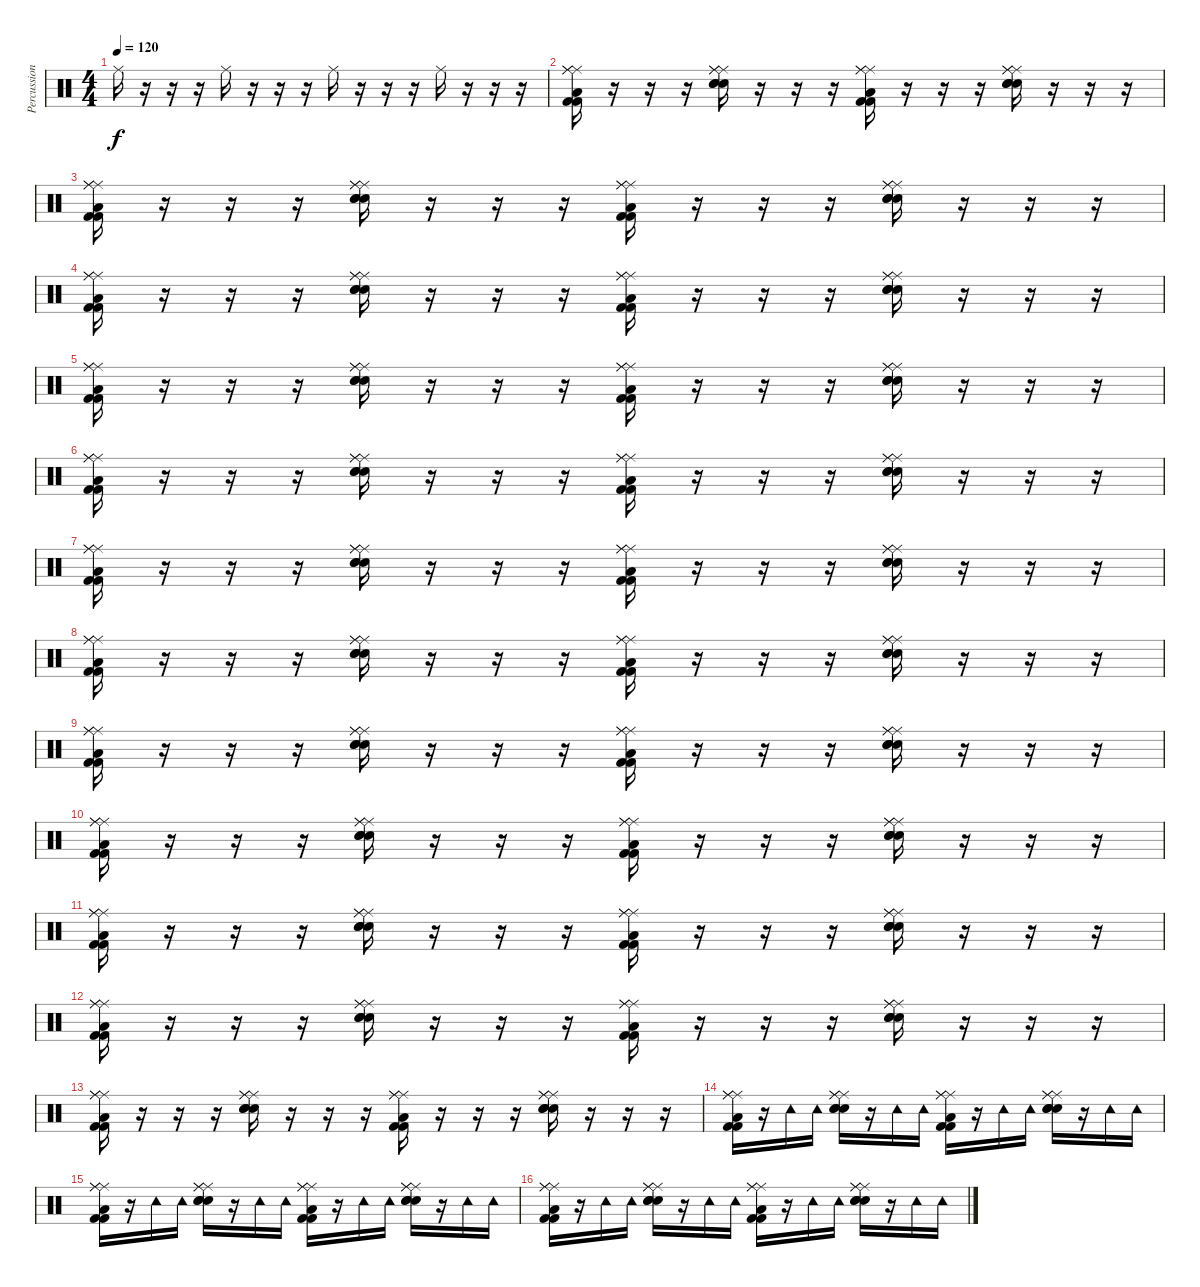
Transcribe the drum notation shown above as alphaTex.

\track ("Percussion" "Percussion") {instrument percussion}
\staff {score}
\articulation defaults
\ts (4 4)
\tempo 120
\clef neutral
\ks c "Ride (middle)".16{dy f}
r.16 r.16 r.16 "Ride (middle)".16 r.16 r.16 r.16 "Ride (middle)".16 r.16 r.16 r.16 "Ride (middle)".16 r.16 r.16 r.16 |
("Ride (middle)" "Ride (middle)" "Ride (middle)" "Low Floor Tom (hit)" "Kick (hit) 2" "Kick (hit) 2").16 r.16 r.16 r.16 ("Ride (middle)" "Ride (middle)" "Ride (middle)" "Snare (hit) 2" "Snare (hit) 2" "Snare (hit) 2").16 r.16 r.16 r.16 ("Ride (middle)" "Ride (middle)" "Ride (middle)" "Low Floor Tom (hit)" "Kick (hit) 2" "Kick (hit) 2").16 r.16 r.16 r.16 ("Ride (middle)" "Ride (middle)" "Ride (middle)" "Snare (hit) 2" "Snare (hit) 2" "Snare (hit) 2").16 r.16 r.16 r.16 |
("Ride (middle)" "Ride (middle)" "Ride (middle)" "Low Floor Tom (hit)" "Kick (hit) 2" "Kick (hit) 2").16 r.16 r.16 r.16 ("Ride (middle)" "Ride (middle)" "Ride (middle)" "Snare (hit) 2" "Snare (hit) 2" "Snare (hit) 2").16 r.16 r.16 r.16 ("Ride (middle)" "Ride (middle)" "Ride (middle)" "Low Floor Tom (hit)" "Kick (hit) 2" "Kick (hit) 2").16 r.16 r.16 r.16 ("Ride (middle)" "Ride (middle)" "Ride (middle)" "Snare (hit) 2" "Snare (hit) 2" "Snare (hit) 2").16 r.16 r.16 r.16 |
("Ride (middle)" "Ride (middle)" "Ride (middle)" "Low Floor Tom (hit)" "Kick (hit) 2" "Kick (hit) 2").16 r.16 r.16 r.16 ("Ride (middle)" "Ride (middle)" "Ride (middle)" "Snare (hit) 2" "Snare (hit) 2" "Snare (hit) 2").16 r.16 r.16 r.16 ("Ride (middle)" "Ride (middle)" "Ride (middle)" "Low Floor Tom (hit)" "Kick (hit) 2" "Kick (hit) 2").16 r.16 r.16 r.16 ("Ride (middle)" "Ride (middle)" "Ride (middle)" "Snare (hit) 2" "Snare (hit) 2" "Snare (hit) 2").16 r.16 r.16 r.16 |
("Ride (middle)" "Ride (middle)" "Ride (middle)" "Low Floor Tom (hit)" "Kick (hit) 2" "Kick (hit) 2").16 r.16 r.16 r.16 ("Ride (middle)" "Ride (middle)" "Ride (middle)" "Snare (hit) 2" "Snare (hit) 2" "Snare (hit) 2").16 r.16 r.16 r.16 ("Ride (middle)" "Ride (middle)" "Ride (middle)" "Low Floor Tom (hit)" "Kick (hit) 2" "Kick (hit) 2").16 r.16 r.16 r.16 ("Ride (middle)" "Ride (middle)" "Ride (middle)" "Snare (hit) 2" "Snare (hit) 2" "Snare (hit) 2").16 r.16 r.16 r.16 |
("Ride (middle)" "Ride (middle)" "Ride (middle)" "Low Floor Tom (hit)" "Kick (hit) 2" "Kick (hit) 2").16 r.16 r.16 r.16 ("Ride (middle)" "Ride (middle)" "Ride (middle)" "Snare (hit) 2" "Snare (hit) 2" "Snare (hit) 2").16 r.16 r.16 r.16 ("Ride (middle)" "Ride (middle)" "Ride (middle)" "Low Floor Tom (hit)" "Kick (hit) 2" "Kick (hit) 2").16 r.16 r.16 r.16 ("Ride (middle)" "Ride (middle)" "Ride (middle)" "Snare (hit) 2" "Snare (hit) 2" "Snare (hit) 2").16 r.16 r.16 r.16 |
("Ride (middle)" "Ride (middle)" "Ride (middle)" "Low Floor Tom (hit)" "Kick (hit) 2" "Kick (hit) 2").16 r.16 r.16 r.16 ("Ride (middle)" "Ride (middle)" "Ride (middle)" "Snare (hit) 2" "Snare (hit) 2" "Snare (hit) 2").16 r.16 r.16 r.16 ("Ride (middle)" "Ride (middle)" "Ride (middle)" "Low Floor Tom (hit)" "Kick (hit) 2" "Kick (hit) 2").16 r.16 r.16 r.16 ("Ride (middle)" "Ride (middle)" "Ride (middle)" "Snare (hit) 2" "Snare (hit) 2" "Snare (hit) 2").16 r.16 r.16 r.16 |
("Ride (middle)" "Ride (middle)" "Ride (middle)" "Low Floor Tom (hit)" "Kick (hit) 2" "Kick (hit) 2").16 r.16 r.16 r.16 ("Ride (middle)" "Ride (middle)" "Ride (middle)" "Snare (hit) 2" "Snare (hit) 2" "Snare (hit) 2").16 r.16 r.16 r.16 ("Ride (middle)" "Ride (middle)" "Ride (middle)" "Low Floor Tom (hit)" "Kick (hit) 2" "Kick (hit) 2").16 r.16 r.16 r.16 ("Ride (middle)" "Ride (middle)" "Ride (middle)" "Snare (hit) 2" "Snare (hit) 2" "Snare (hit) 2").16 r.16 r.16 r.16 |
("Ride (middle)" "Ride (middle)" "Ride (middle)" "Low Floor Tom (hit)" "Kick (hit) 2" "Kick (hit) 2").16 r.16 r.16 r.16 ("Ride (middle)" "Ride (middle)" "Ride (middle)" "Snare (hit) 2" "Snare (hit) 2" "Snare (hit) 2").16 r.16 r.16 r.16 ("Ride (middle)" "Ride (middle)" "Ride (middle)" "Low Floor Tom (hit)" "Kick (hit) 2" "Kick (hit) 2").16 r.16 r.16 r.16 ("Ride (middle)" "Ride (middle)" "Ride (middle)" "Snare (hit) 2" "Snare (hit) 2" "Snare (hit) 2").16 r.16 r.16 r.16 |
("Ride (middle)" "Ride (middle)" "Ride (middle)" "Low Floor Tom (hit)" "Kick (hit) 2" "Kick (hit) 2").16 r.16 r.16 r.16 ("Ride (middle)" "Ride (middle)" "Ride (middle)" "Snare (hit) 2" "Snare (hit) 2" "Snare (hit) 2").16 r.16 r.16 r.16 ("Ride (middle)" "Ride (middle)" "Ride (middle)" "Low Floor Tom (hit)" "Kick (hit) 2" "Kick (hit) 2").16 r.16 r.16 r.16 ("Ride (middle)" "Ride (middle)" "Ride (middle)" "Snare (hit) 2" "Snare (hit) 2" "Snare (hit) 2").16 r.16 r.16 r.16 |
("Ride (middle)" "Ride (middle)" "Ride (middle)" "Low Floor Tom (hit)" "Kick (hit) 2" "Kick (hit) 2").16 r.16 r.16 r.16 ("Ride (middle)" "Ride (middle)" "Ride (middle)" "Snare (hit) 2" "Snare (hit) 2" "Snare (hit) 2").16 r.16 r.16 r.16 ("Ride (middle)" "Ride (middle)" "Ride (middle)" "Low Floor Tom (hit)" "Kick (hit) 2" "Kick (hit) 2").16 r.16 r.16 r.16 ("Ride (middle)" "Ride (middle)" "Ride (middle)" "Snare (hit) 2" "Snare (hit) 2" "Snare (hit) 2").16 r.16 r.16 r.16 |
("Ride (middle)" "Ride (middle)" "Ride (middle)" "Low Floor Tom (hit)" "Kick (hit) 2" "Kick (hit) 2").16 r.16 r.16 r.16 ("Ride (middle)" "Ride (middle)" "Ride (middle)" "Snare (hit) 2" "Snare (hit) 2" "Snare (hit) 2").16 r.16 r.16 r.16 ("Ride (middle)" "Ride (middle)" "Ride (middle)" "Low Floor Tom (hit)" "Kick (hit) 2" "Kick (hit) 2").16 r.16 r.16 r.16 ("Ride (middle)" "Ride (middle)" "Ride (middle)" "Snare (hit) 2" "Snare (hit) 2" "Snare (hit) 2").16 r.16 r.16 r.16 |
("Ride (middle)" "Ride (middle)" "Ride (middle)" "Low Floor Tom (hit)" "Kick (hit) 2" "Kick (hit) 2").16 r.16 r.16 r.16 ("Ride (middle)" "Ride (middle)" "Ride (middle)" "Snare (hit) 2" "Snare (hit) 2" "Snare (hit) 2").16 r.16 r.16 r.16 ("Ride (middle)" "Ride (middle)" "Ride (middle)" "Low Floor Tom (hit)" "Kick (hit) 2" "Kick (hit) 2").16 r.16 r.16 r.16 ("Ride (middle)" "Ride (middle)" "Ride (middle)" "Snare (hit) 2" "Snare (hit) 2" "Snare (hit) 2").16 r.16 r.16 r.16 |
("Ride (middle)" "Ride (middle)" "Ride (middle)" "Low Floor Tom (hit)" "Kick (hit) 2" "Kick (hit) 2").16 r.16 "Tambourine (hit)".16 "Tambourine (hit)".16 ("Ride (middle)" "Ride (middle)" "Ride (middle)" "Snare (hit) 2" "Snare (hit) 2" "Snare (hit) 2").16 r.16 "Tambourine (hit)".16 "Tambourine (hit)".16 ("Ride (middle)" "Ride (middle)" "Ride (middle)" "Low Floor Tom (hit)" "Kick (hit) 2" "Kick (hit) 2").16 r.16 "Tambourine (hit)".16 "Tambourine (hit)".16 ("Ride (middle)" "Ride (middle)" "Ride (middle)" "Snare (hit) 2" "Snare (hit) 2" "Snare (hit) 2").16 r.16 "Tambourine (hit)".16 "Tambourine (hit)".16 |
("Ride (middle)" "Ride (middle)" "Ride (middle)" "Low Floor Tom (hit)" "Kick (hit) 2" "Kick (hit) 2").16 r.16 "Tambourine (hit)".16 "Tambourine (hit)".16 ("Ride (middle)" "Ride (middle)" "Ride (middle)" "Snare (hit) 2" "Snare (hit) 2" "Snare (hit) 2").16 r.16 "Tambourine (hit)".16 "Tambourine (hit)".16 ("Ride (middle)" "Ride (middle)" "Ride (middle)" "Low Floor Tom (hit)" "Kick (hit) 2" "Kick (hit) 2").16 r.16 "Tambourine (hit)".16 "Tambourine (hit)".16 ("Ride (middle)" "Ride (middle)" "Ride (middle)" "Snare (hit) 2" "Snare (hit) 2" "Snare (hit) 2").16 r.16 "Tambourine (hit)".16 "Tambourine (hit)".16 |
("Ride (middle)" "Ride (middle)" "Ride (middle)" "Low Floor Tom (hit)" "Kick (hit) 2" "Kick (hit) 2").16 r.16 "Tambourine (hit)".16 "Tambourine (hit)".16 ("Ride (middle)" "Ride (middle)" "Ride (middle)" "Snare (hit) 2" "Snare (hit) 2" "Snare (hit) 2").16 r.16 "Tambourine (hit)".16 "Tambourine (hit)".16 ("Ride (middle)" "Ride (middle)" "Ride (middle)" "Low Floor Tom (hit)" "Kick (hit) 2" "Kick (hit) 2").16 r.16 "Tambourine (hit)".16 "Tambourine (hit)".16 ("Ride (middle)" "Ride (middle)" "Ride (middle)" "Snare (hit) 2" "Snare (hit) 2" "Snare (hit) 2").16 r.16 "Tambourine (hit)".16 "Tambourine (hit)".16
